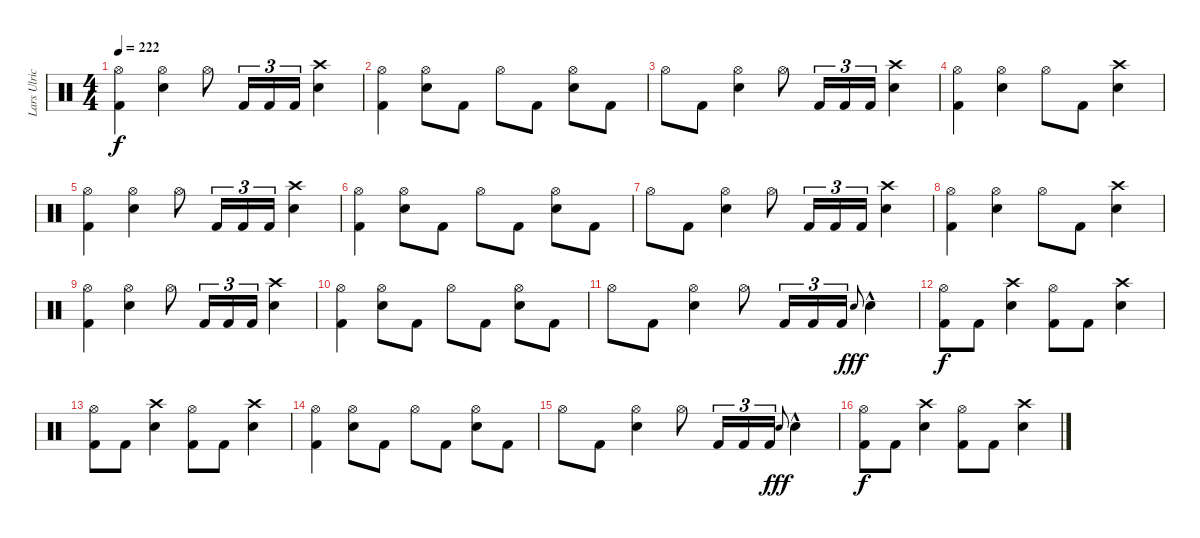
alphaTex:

\track ("Lars Ulrich" "Lars Ulric") {instrument percussion}
\staff {score}
\articulation defaults
\ts (4 4)
\tempo 222
\clef neutral
\ks c
("Hi-Hat (open)" "Kick (hit) 2").4{dy f} ("Hi-Hat (open)" "Electric Snare (hit)").4 "Hi-Hat (open)".8 "Kick (hit) 2".16{tu (3 2)} "Kick (hit) 2".16{tu (3 2)} "Kick (hit) 2".16{tu (3 2)} ("Crash high (hit)" "Electric Snare (hit)").4 |
("Hi-Hat (open)" "Kick (hit) 2").4 ("Hi-Hat (open)" "Electric Snare (hit)").8 "Kick (hit) 2".8 "Hi-Hat (open)".8 "Kick (hit) 2".8 ("Hi-Hat (open)" "Electric Snare (hit)").8 "Kick (hit) 2".8 |
"Hi-Hat (open)".8 "Kick (hit) 2".8 ("Hi-Hat (open)" "Electric Snare (hit)").4 "Hi-Hat (open)".8 "Kick (hit) 2".16{tu (3 2)} "Kick (hit) 2".16{tu (3 2)} "Kick (hit) 2".16{tu (3 2)} ("Crash high (hit)" "Electric Snare (hit)").4 |
("Hi-Hat (open)" "Kick (hit) 2").4 ("Hi-Hat (open)" "Electric Snare (hit)").4 "Hi-Hat (open)".8 "Kick (hit) 2".8 ("Crash high (hit)" "Electric Snare (hit)").4 |
("Hi-Hat (open)" "Kick (hit) 2").4 ("Hi-Hat (open)" "Electric Snare (hit)").4 "Hi-Hat (open)".8 "Kick (hit) 2".16{tu (3 2)} "Kick (hit) 2".16{tu (3 2)} "Kick (hit) 2".16{tu (3 2)} ("Crash high (hit)" "Electric Snare (hit)").4 |
("Hi-Hat (open)" "Kick (hit) 2").4 ("Hi-Hat (open)" "Electric Snare (hit)").8 "Kick (hit) 2".8 "Hi-Hat (open)".8 "Kick (hit) 2".8 ("Hi-Hat (open)" "Electric Snare (hit)").8 "Kick (hit) 2".8 |
"Hi-Hat (open)".8 "Kick (hit) 2".8 ("Hi-Hat (open)" "Electric Snare (hit)").4 "Hi-Hat (open)".8 "Kick (hit) 2".16{tu (3 2)} "Kick (hit) 2".16{tu (3 2)} "Kick (hit) 2".16{tu (3 2)} ("Crash high (hit)" "Electric Snare (hit)").4 |
("Hi-Hat (open)" "Kick (hit) 2").4 ("Hi-Hat (open)" "Electric Snare (hit)").4 "Hi-Hat (open)".8 "Kick (hit) 2".8 ("Crash high (hit)" "Electric Snare (hit)").4 |
("Hi-Hat (open)" "Kick (hit) 2").4 ("Hi-Hat (open)" "Electric Snare (hit)").4 "Hi-Hat (open)".8 "Kick (hit) 2".16{tu (3 2)} "Kick (hit) 2".16{tu (3 2)} "Kick (hit) 2".16{tu (3 2)} ("Crash high (hit)" "Electric Snare (hit)").4 |
("Hi-Hat (open)" "Kick (hit) 2").4 ("Hi-Hat (open)" "Electric Snare (hit)").8 "Kick (hit) 2".8 "Hi-Hat (open)".8 "Kick (hit) 2".8 ("Hi-Hat (open)" "Electric Snare (hit)").8 "Kick (hit) 2".8 |
"Hi-Hat (open)".8 "Kick (hit) 2".8 ("Hi-Hat (open)" "Electric Snare (hit)").4 "Hi-Hat (open)".8 "Kick (hit) 2".16{tu (3 2)} "Kick (hit) 2".16{tu (3 2)} "Kick (hit) 2".16{tu (3 2)} "Electric Snare (hit)".8{gr onbeat dy fff} "Electric Snare (hit)"{hac}.4 |
("Hi-Hat (open)" "Kick (hit) 2").8{dy f} "Kick (hit) 2".8 ("Crash high (hit)" "Electric Snare (hit)").4 ("Hi-Hat (open)" "Kick (hit) 2").8 "Kick (hit) 2".8 ("Crash high (hit)" "Electric Snare (hit)").4 |
("Hi-Hat (open)" "Kick (hit) 2").8 "Kick (hit) 2".8 ("Crash high (hit)" "Electric Snare (hit)").4 ("Hi-Hat (open)" "Kick (hit) 2").8 "Kick (hit) 2".8 ("Crash high (hit)" "Electric Snare (hit)").4 |
("Hi-Hat (open)" "Kick (hit) 2").4 ("Hi-Hat (open)" "Electric Snare (hit)").8 "Kick (hit) 2".8 "Hi-Hat (open)".8 "Kick (hit) 2".8 ("Hi-Hat (open)" "Electric Snare (hit)").8 "Kick (hit) 2".8 |
"Hi-Hat (open)".8 "Kick (hit) 2".8 ("Hi-Hat (open)" "Electric Snare (hit)").4 "Hi-Hat (open)".8 "Kick (hit) 2".16{tu (3 2)} "Kick (hit) 2".16{tu (3 2)} "Kick (hit) 2".16{tu (3 2)} "Electric Snare (hit)".8{gr onbeat dy fff} "Electric Snare (hit)"{hac}.4 |
("Hi-Hat (open)" "Kick (hit) 2").8{dy f} "Kick (hit) 2".8 ("Crash high (hit)" "Electric Snare (hit)").4 ("Hi-Hat (open)" "Kick (hit) 2").8 "Kick (hit) 2".8 ("Crash high (hit)" "Electric Snare (hit)").4
